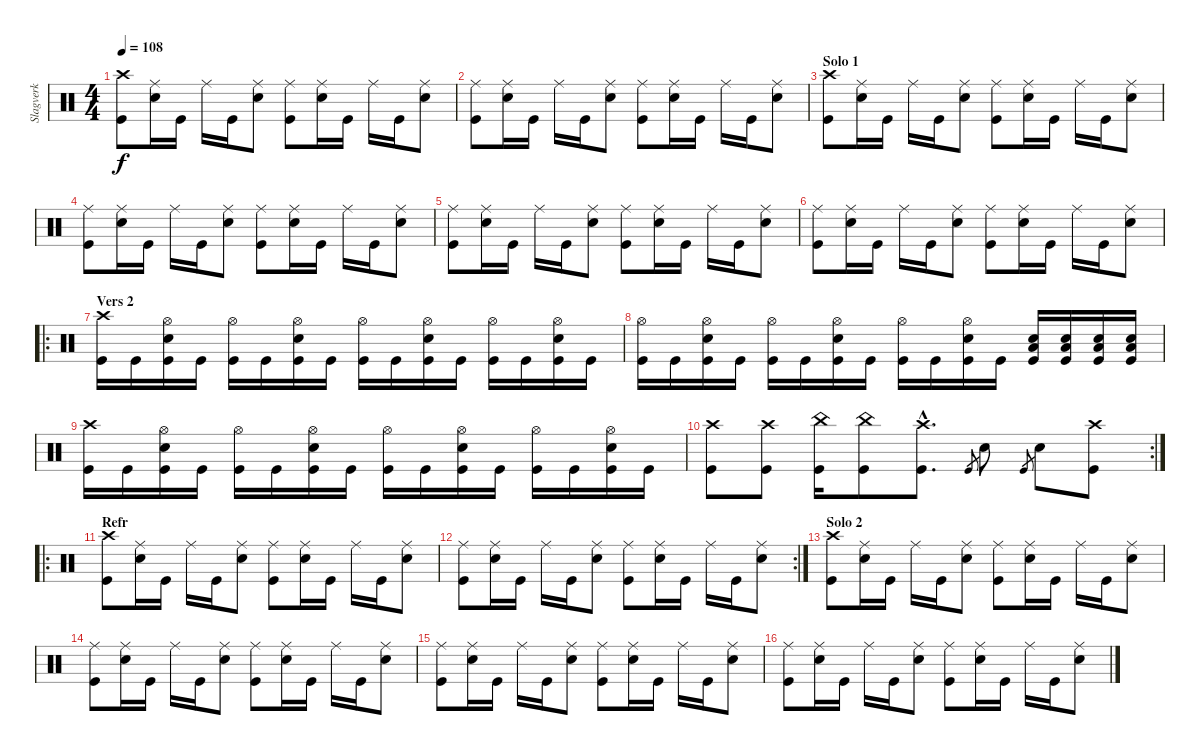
\track ("Slagverk" "Slagverk") {instrument percussion}
\staff {score}
\articulation defaults
\ts (4 4)
\tempo 108
\clef neutral
\ks c
("Crash high (hit)" "Kick (hit)").8{dy f} ("Ride (middle)" "Electric Snare (hit)").16 "Kick (hit)".16 "Ride (middle)".16 "Kick (hit)".16 ("Ride (middle)" "Electric Snare (hit)").8 ("Ride (middle)" "Kick (hit)").8 ("Ride (middle)" "Electric Snare (hit)").16 "Kick (hit)".16 "Ride (middle)".16 "Kick (hit)".16 ("Ride (middle)" "Electric Snare (hit)").8 |
("Ride (middle)" "Kick (hit)").8 ("Ride (middle)" "Electric Snare (hit)").16 "Kick (hit)".16 "Ride (middle)".16 "Kick (hit)".16 ("Ride (middle)" "Electric Snare (hit)").8 ("Ride (middle)" "Kick (hit)").8 ("Ride (middle)" "Electric Snare (hit)").16 "Kick (hit)".16 "Ride (middle)".16 "Kick (hit)".16 ("Ride (middle)" "Electric Snare (hit)").8 |
\section ("" "Solo 1")
("Crash high (hit)" "Kick (hit)").8 ("Ride (middle)" "Electric Snare (hit)").16 "Kick (hit)".16 "Ride (middle)".16 "Kick (hit)".16 ("Ride (middle)" "Electric Snare (hit)").8 ("Ride (middle)" "Kick (hit)").8 ("Ride (middle)" "Electric Snare (hit)").16 "Kick (hit)".16 "Ride (middle)".16 "Kick (hit)".16 ("Ride (middle)" "Electric Snare (hit)").8 |
("Ride (middle)" "Kick (hit)").8 ("Ride (middle)" "Electric Snare (hit)").16 "Kick (hit)".16 "Ride (middle)".16 "Kick (hit)".16 ("Ride (middle)" "Electric Snare (hit)").8 ("Ride (middle)" "Kick (hit)").8 ("Ride (middle)" "Electric Snare (hit)").16 "Kick (hit)".16 "Ride (middle)".16 "Kick (hit)".16 ("Ride (middle)" "Electric Snare (hit)").8 |
("Ride (middle)" "Kick (hit)").8 ("Ride (middle)" "Electric Snare (hit)").16 "Kick (hit)".16 "Ride (middle)".16 "Kick (hit)".16 ("Ride (middle)" "Electric Snare (hit)").8 ("Ride (middle)" "Kick (hit)").8 ("Ride (middle)" "Electric Snare (hit)").16 "Kick (hit)".16 "Ride (middle)".16 "Kick (hit)".16 ("Ride (middle)" "Electric Snare (hit)").8 |
("Ride (middle)" "Kick (hit)").8 ("Ride (middle)" "Electric Snare (hit)").16 "Kick (hit)".16 "Ride (middle)".16 "Kick (hit)".16 ("Ride (middle)" "Electric Snare (hit)").8 ("Ride (middle)" "Kick (hit)").8 ("Ride (middle)" "Electric Snare (hit)").16 "Kick (hit)".16 "Ride (middle)".16 "Kick (hit)".16 ("Ride (middle)" "Electric Snare (hit)").8 |
\ro
\section ("" "Vers 2")
("Crash high (hit)" "Kick (hit)").16 "Kick (hit)".16 ("Hi-Hat (open)" "Electric Snare (hit)" "Kick (hit)").16 "Kick (hit)".16 ("Hi-Hat (open)" "Kick (hit)").16 "Kick (hit)".16 ("Hi-Hat (open)" "Electric Snare (hit)" "Kick (hit)").16 "Kick (hit)".16 ("Hi-Hat (open)" "Kick (hit)").16 "Kick (hit)".16 ("Hi-Hat (open)" "Electric Snare (hit)" "Kick (hit)").16 "Kick (hit)".16 ("Hi-Hat (open)" "Kick (hit)").16 "Kick (hit)".16 ("Hi-Hat (open)" "Electric Snare (hit)" "Kick (hit)").16 "Kick (hit)".16 |
("Hi-Hat (open)" "Kick (hit)").16 "Kick (hit)".16 ("Hi-Hat (open)" "Electric Snare (hit)" "Kick (hit)").16 "Kick (hit)".16 ("Hi-Hat (open)" "Kick (hit)").16 "Kick (hit)".16 ("Hi-Hat (open)" "Electric Snare (hit)" "Kick (hit)").16 "Kick (hit)".16 ("Hi-Hat (open)" "Kick (hit)").16 "Kick (hit)".16 ("Hi-Hat (open)" "Electric Snare (hit)" "Kick (hit)").16 "Kick (hit)".16 ("Electric Snare (hit)" "Low Floor Tom (hit)" "Kick (hit)").16 ("Electric Snare (hit)" "Low Floor Tom (hit)" "Kick (hit)").16 ("Electric Snare (hit)" "Low Floor Tom (hit)" "Kick (hit)").16 ("Electric Snare (hit)" "Low Floor Tom (hit)" "Kick (hit)").16 |
("Crash high (hit)" "Kick (hit)").16 "Kick (hit)".16 ("Hi-Hat (open)" "Electric Snare (hit)" "Kick (hit)").16 "Kick (hit)".16 ("Hi-Hat (open)" "Kick (hit)").16 "Kick (hit)".16 ("Hi-Hat (open)" "Electric Snare (hit)" "Kick (hit)").16 "Kick (hit)".16 ("Hi-Hat (open)" "Kick (hit)").16 "Kick (hit)".16 ("Hi-Hat (open)" "Electric Snare (hit)" "Kick (hit)").16 "Kick (hit)".16 ("Hi-Hat (open)" "Kick (hit)").16 "Kick (hit)".16 ("Hi-Hat (open)" "Electric Snare (hit)" "Kick (hit)").16 "Kick (hit)".16 |
\rc 2
("Crash high (hit)" "Kick (hit)").8 ("Crash high (hit)" "Kick (hit)").8 ("China (hit)" "Kick (hit)").16 ("China (hit)" "Kick (hit)").8 ("Crash high (hit)"{hac} "Kick (hit)"{hac}).8{d} "Kick (hit)"{sl}.8{gr} "Electric Snare (hit)".8 "Kick (hit)"{sl}.8{gr} "Electric Snare (hit)".8 ("Crash high (hit)" "Kick (hit)").8 |
\ro
\section ("" "Refr")
("Crash high (hit)" "Kick (hit)").8 ("Ride (middle)" "Electric Snare (hit)").16 "Kick (hit)".16 "Ride (middle)".16 "Kick (hit)".16 ("Ride (middle)" "Electric Snare (hit)").8 ("Ride (middle)" "Kick (hit)").8 ("Ride (middle)" "Electric Snare (hit)").16 "Kick (hit)".16 "Ride (middle)".16 "Kick (hit)".16 ("Ride (middle)" "Electric Snare (hit)").8 |
\rc 2
("Ride (middle)" "Kick (hit)").8 ("Ride (middle)" "Electric Snare (hit)").16 "Kick (hit)".16 "Ride (middle)".16 "Kick (hit)".16 ("Ride (middle)" "Electric Snare (hit)").8 ("Ride (middle)" "Kick (hit)").8 ("Ride (middle)" "Electric Snare (hit)").16 "Kick (hit)".16 "Ride (middle)".16 "Kick (hit)".16 ("Ride (middle)" "Electric Snare (hit)").8 |
\section ("" "Solo 2")
("Crash high (hit)" "Kick (hit)").8 ("Ride (middle)" "Electric Snare (hit)").16 "Kick (hit)".16 "Ride (middle)".16 "Kick (hit)".16 ("Ride (middle)" "Electric Snare (hit)").8 ("Ride (middle)" "Kick (hit)").8 ("Ride (middle)" "Electric Snare (hit)").16 "Kick (hit)".16 "Ride (middle)".16 "Kick (hit)".16 ("Ride (middle)" "Electric Snare (hit)").8 |
("Ride (middle)" "Kick (hit)").8 ("Ride (middle)" "Electric Snare (hit)").16 "Kick (hit)".16 "Ride (middle)".16 "Kick (hit)".16 ("Ride (middle)" "Electric Snare (hit)").8 ("Ride (middle)" "Kick (hit)").8 ("Ride (middle)" "Electric Snare (hit)").16 "Kick (hit)".16 "Ride (middle)".16 "Kick (hit)".16 ("Ride (middle)" "Electric Snare (hit)").8 |
("Ride (middle)" "Kick (hit)").8 ("Ride (middle)" "Electric Snare (hit)").16 "Kick (hit)".16 "Ride (middle)".16 "Kick (hit)".16 ("Ride (middle)" "Electric Snare (hit)").8 ("Ride (middle)" "Kick (hit)").8 ("Ride (middle)" "Electric Snare (hit)").16 "Kick (hit)".16 "Ride (middle)".16 "Kick (hit)".16 ("Ride (middle)" "Electric Snare (hit)").8 |
("Ride (middle)" "Kick (hit)").8 ("Ride (middle)" "Electric Snare (hit)").16 "Kick (hit)".16 "Ride (middle)".16 "Kick (hit)".16 ("Ride (middle)" "Electric Snare (hit)").8 ("Ride (middle)" "Kick (hit)").8 ("Ride (middle)" "Electric Snare (hit)").16 "Kick (hit)".16 "Ride (middle)".16 "Kick (hit)".16 ("Ride (middle)" "Electric Snare (hit)").8
